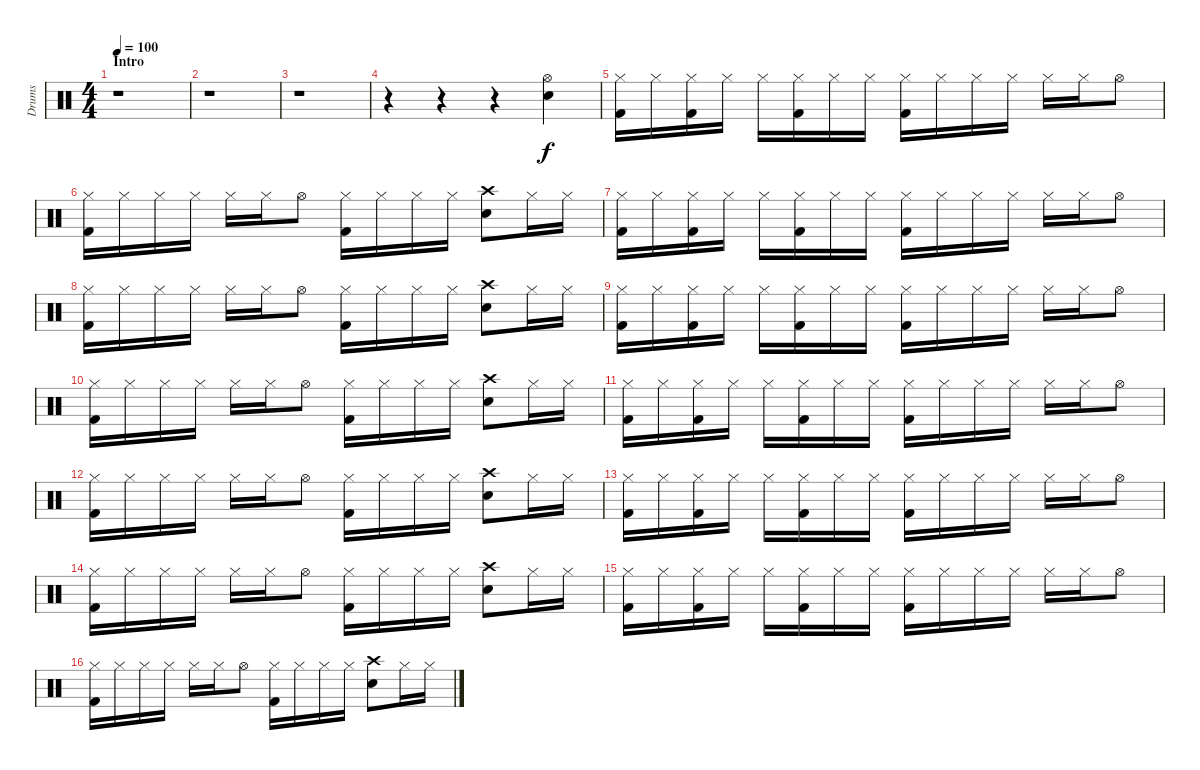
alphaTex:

\track ("Drums" "Drums") {instrument percussion}
\staff {score}
\articulation defaults
\ts (4 4)
\section ("" "Intro")
\tempo 100
\clef neutral
\ks c
r.1{dy f} |
r.1 |
r.1 |
r.4 r.4 r.4 ("Hi-Hat (open)" "Electric Snare (hit)").4 |
("Hi-Hat (closed)" "Kick (hit) 2").16 "Hi-Hat (closed)".16 ("Hi-Hat (closed)" "Kick (hit) 2").16 "Hi-Hat (closed)".16 "Hi-Hat (closed)".16 ("Hi-Hat (closed)" "Kick (hit) 2").16 "Hi-Hat (closed)".16 "Hi-Hat (closed)".16 ("Hi-Hat (closed)" "Kick (hit) 2").16 "Hi-Hat (closed)".16 "Hi-Hat (closed)".16 "Hi-Hat (closed)".16 "Hi-Hat (closed)".16 "Hi-Hat (closed)".16 "Hi-Hat (open)".8 |
("Hi-Hat (closed)" "Kick (hit) 2").16 "Hi-Hat (closed)".16 "Hi-Hat (closed)".16 "Hi-Hat (closed)".16 "Hi-Hat (closed)".16 "Hi-Hat (closed)".16 "Hi-Hat (open)".8 ("Hi-Hat (closed)" "Kick (hit) 2").16 "Hi-Hat (closed)".16 "Hi-Hat (closed)".16 "Hi-Hat (closed)".16 ("Crash high (hit)" "Electric Snare (hit)").8 "Hi-Hat (closed)".16 "Hi-Hat (closed)".16 |
("Hi-Hat (closed)" "Kick (hit) 2").16 "Hi-Hat (closed)".16 ("Hi-Hat (closed)" "Kick (hit) 2").16 "Hi-Hat (closed)".16 "Hi-Hat (closed)".16 ("Hi-Hat (closed)" "Kick (hit) 2").16 "Hi-Hat (closed)".16 "Hi-Hat (closed)".16 ("Hi-Hat (closed)" "Kick (hit) 2").16 "Hi-Hat (closed)".16 "Hi-Hat (closed)".16 "Hi-Hat (closed)".16 "Hi-Hat (closed)".16 "Hi-Hat (closed)".16 "Hi-Hat (open)".8 |
("Hi-Hat (closed)" "Kick (hit) 2").16 "Hi-Hat (closed)".16 "Hi-Hat (closed)".16 "Hi-Hat (closed)".16 "Hi-Hat (closed)".16 "Hi-Hat (closed)".16 "Hi-Hat (open)".8 ("Hi-Hat (closed)" "Kick (hit) 2").16 "Hi-Hat (closed)".16 "Hi-Hat (closed)".16 "Hi-Hat (closed)".16 ("Crash high (hit)" "Electric Snare (hit)").8 "Hi-Hat (closed)".16 "Hi-Hat (closed)".16 |
("Hi-Hat (closed)" "Kick (hit) 2").16 "Hi-Hat (closed)".16 ("Hi-Hat (closed)" "Kick (hit) 2").16 "Hi-Hat (closed)".16 "Hi-Hat (closed)".16 ("Hi-Hat (closed)" "Kick (hit) 2").16 "Hi-Hat (closed)".16 "Hi-Hat (closed)".16 ("Hi-Hat (closed)" "Kick (hit) 2").16 "Hi-Hat (closed)".16 "Hi-Hat (closed)".16 "Hi-Hat (closed)".16 "Hi-Hat (closed)".16 "Hi-Hat (closed)".16 "Hi-Hat (open)".8 |
("Hi-Hat (closed)" "Kick (hit) 2").16 "Hi-Hat (closed)".16 "Hi-Hat (closed)".16 "Hi-Hat (closed)".16 "Hi-Hat (closed)".16 "Hi-Hat (closed)".16 "Hi-Hat (open)".8 ("Hi-Hat (closed)" "Kick (hit) 2").16 "Hi-Hat (closed)".16 "Hi-Hat (closed)".16 "Hi-Hat (closed)".16 ("Crash high (hit)" "Electric Snare (hit)").8 "Hi-Hat (closed)".16 "Hi-Hat (closed)".16 |
("Hi-Hat (closed)" "Kick (hit) 2").16 "Hi-Hat (closed)".16 ("Hi-Hat (closed)" "Kick (hit) 2").16 "Hi-Hat (closed)".16 "Hi-Hat (closed)".16 ("Hi-Hat (closed)" "Kick (hit) 2").16 "Hi-Hat (closed)".16 "Hi-Hat (closed)".16 ("Hi-Hat (closed)" "Kick (hit) 2").16 "Hi-Hat (closed)".16 "Hi-Hat (closed)".16 "Hi-Hat (closed)".16 "Hi-Hat (closed)".16 "Hi-Hat (closed)".16 "Hi-Hat (open)".8 |
("Hi-Hat (closed)" "Kick (hit) 2").16 "Hi-Hat (closed)".16 "Hi-Hat (closed)".16 "Hi-Hat (closed)".16 "Hi-Hat (closed)".16 "Hi-Hat (closed)".16 "Hi-Hat (open)".8 ("Hi-Hat (closed)" "Kick (hit) 2").16 "Hi-Hat (closed)".16 "Hi-Hat (closed)".16 "Hi-Hat (closed)".16 ("Crash high (hit)" "Electric Snare (hit)").8 "Hi-Hat (closed)".16 "Hi-Hat (closed)".16 |
("Hi-Hat (closed)" "Kick (hit) 2").16 "Hi-Hat (closed)".16 ("Hi-Hat (closed)" "Kick (hit) 2").16 "Hi-Hat (closed)".16 "Hi-Hat (closed)".16 ("Hi-Hat (closed)" "Kick (hit) 2").16 "Hi-Hat (closed)".16 "Hi-Hat (closed)".16 ("Hi-Hat (closed)" "Kick (hit) 2").16 "Hi-Hat (closed)".16 "Hi-Hat (closed)".16 "Hi-Hat (closed)".16 "Hi-Hat (closed)".16 "Hi-Hat (closed)".16 "Hi-Hat (open)".8 |
("Hi-Hat (closed)" "Kick (hit) 2").16 "Hi-Hat (closed)".16 "Hi-Hat (closed)".16 "Hi-Hat (closed)".16 "Hi-Hat (closed)".16 "Hi-Hat (closed)".16 "Hi-Hat (open)".8 ("Hi-Hat (closed)" "Kick (hit) 2").16 "Hi-Hat (closed)".16 "Hi-Hat (closed)".16 "Hi-Hat (closed)".16 ("Crash high (hit)" "Electric Snare (hit)").8 "Hi-Hat (closed)".16 "Hi-Hat (closed)".16 |
("Hi-Hat (closed)" "Kick (hit) 2").16 "Hi-Hat (closed)".16 ("Hi-Hat (closed)" "Kick (hit) 2").16 "Hi-Hat (closed)".16 "Hi-Hat (closed)".16 ("Hi-Hat (closed)" "Kick (hit) 2").16 "Hi-Hat (closed)".16 "Hi-Hat (closed)".16 ("Hi-Hat (closed)" "Kick (hit) 2").16 "Hi-Hat (closed)".16 "Hi-Hat (closed)".16 "Hi-Hat (closed)".16 "Hi-Hat (closed)".16 "Hi-Hat (closed)".16 "Hi-Hat (open)".8 |
("Hi-Hat (closed)" "Kick (hit) 2").16 "Hi-Hat (closed)".16 "Hi-Hat (closed)".16 "Hi-Hat (closed)".16 "Hi-Hat (closed)".16 "Hi-Hat (closed)".16 "Hi-Hat (open)".8 ("Hi-Hat (closed)" "Kick (hit) 2").16 "Hi-Hat (closed)".16 "Hi-Hat (closed)".16 "Hi-Hat (closed)".16 ("Crash high (hit)" "Electric Snare (hit)").8 "Hi-Hat (closed)".16 "Hi-Hat (closed)".16
